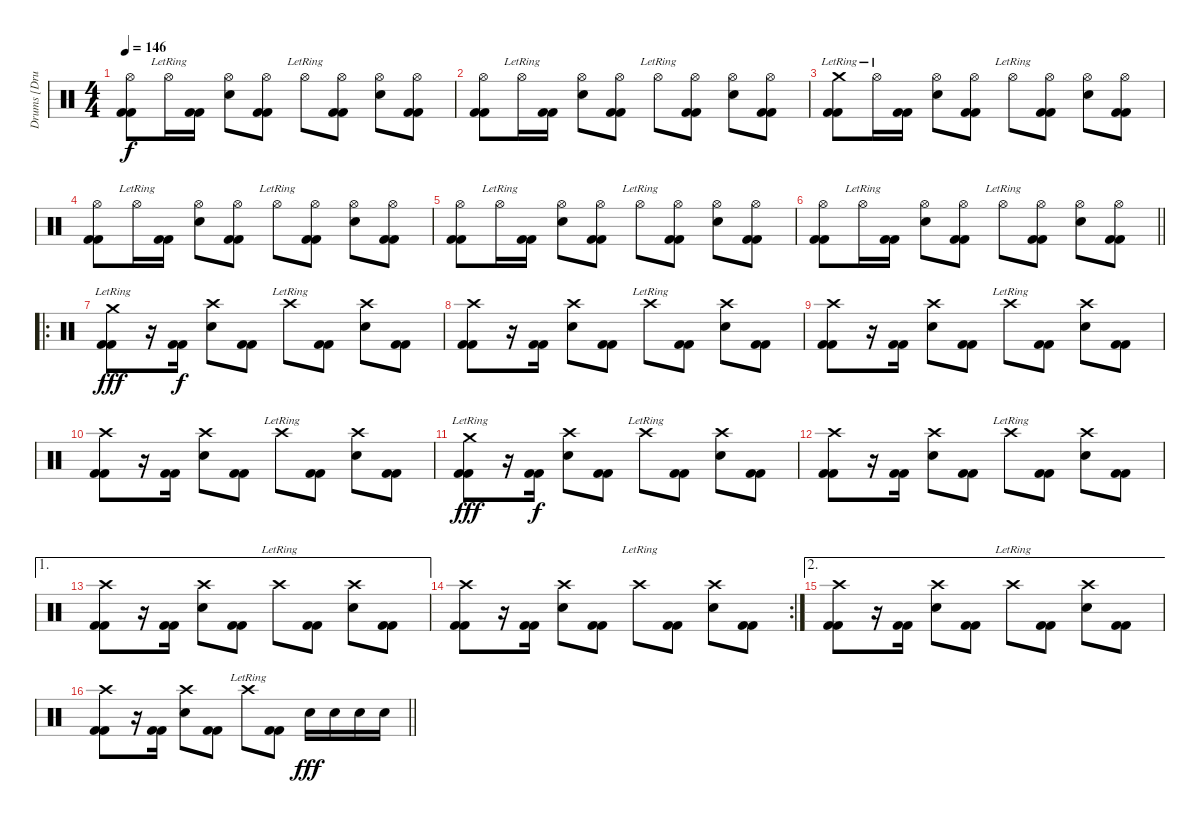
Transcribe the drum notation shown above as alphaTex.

\track ("Drums [Drums]" "Drums [Dru") {instrument percussion}
\staff {score}
\articulation defaults
\ts (4 4)
\tempo 146
\clef neutral
\ks c
("Hi-Hat (open)" "Kick (hit) 2" "Kick (hit) 2").8{dy f} "Hi-Hat (open)"{lr}.16 ("Kick (hit) 2" "Kick (hit) 2").16 ("Hi-Hat (open)" "Snare (hit) 2").8 ("Hi-Hat (open)" "Kick (hit) 2" "Kick (hit) 2").8 "Hi-Hat (open)"{lr}.8 ("Hi-Hat (open)" "Kick (hit) 2" "Kick (hit) 2").8 ("Hi-Hat (open)" "Snare (hit) 2").8 ("Hi-Hat (open)" "Kick (hit) 2" "Kick (hit) 2").8 |
("Hi-Hat (open)" "Kick (hit) 2" "Kick (hit) 2").8 "Hi-Hat (open)"{lr}.16 ("Kick (hit) 2" "Kick (hit) 2").16 ("Hi-Hat (open)" "Snare (hit) 2").8 ("Hi-Hat (open)" "Kick (hit) 2" "Kick (hit) 2").8 "Hi-Hat (open)"{lr}.8 ("Hi-Hat (open)" "Kick (hit) 2" "Kick (hit) 2").8 ("Hi-Hat (open)" "Snare (hit) 2").8 ("Hi-Hat (open)" "Kick (hit) 2" "Kick (hit) 2").8 |
("Crash medium (hit)"{lr} "Kick (hit) 2" "Kick (hit) 2").8 "Hi-Hat (open)"{lr}.16 ("Kick (hit) 2" "Kick (hit) 2").16 ("Hi-Hat (open)" "Snare (hit) 2").8 ("Hi-Hat (open)" "Kick (hit) 2" "Kick (hit) 2").8 "Hi-Hat (open)"{lr}.8 ("Hi-Hat (open)" "Kick (hit) 2" "Kick (hit) 2").8 ("Hi-Hat (open)" "Snare (hit) 2").8 ("Hi-Hat (open)" "Kick (hit) 2" "Kick (hit) 2").8 |
("Hi-Hat (open)" "Kick (hit) 2" "Kick (hit) 2").8 "Hi-Hat (open)"{lr}.16 ("Kick (hit) 2" "Kick (hit) 2").16 ("Hi-Hat (open)" "Snare (hit) 2").8 ("Hi-Hat (open)" "Kick (hit) 2" "Kick (hit) 2").8 "Hi-Hat (open)"{lr}.8 ("Hi-Hat (open)" "Kick (hit) 2" "Kick (hit) 2").8 ("Hi-Hat (open)" "Snare (hit) 2").8 ("Hi-Hat (open)" "Kick (hit) 2" "Kick (hit) 2").8 |
("Hi-Hat (open)" "Kick (hit) 2" "Kick (hit) 2").8 "Hi-Hat (open)"{lr}.16 ("Kick (hit) 2" "Kick (hit) 2").16 ("Hi-Hat (open)" "Snare (hit) 2").8 ("Hi-Hat (open)" "Kick (hit) 2" "Kick (hit) 2").8 "Hi-Hat (open)"{lr}.8 ("Hi-Hat (open)" "Kick (hit) 2" "Kick (hit) 2").8 ("Hi-Hat (open)" "Snare (hit) 2").8 ("Hi-Hat (open)" "Kick (hit) 2" "Kick (hit) 2").8 |
\barLineRight lightlight
("Hi-Hat (open)" "Kick (hit) 2" "Kick (hit) 2").8 "Hi-Hat (open)"{lr}.16 ("Kick (hit) 2" "Kick (hit) 2").16 ("Hi-Hat (open)" "Snare (hit) 2").8 ("Hi-Hat (open)" "Kick (hit) 2" "Kick (hit) 2").8 "Hi-Hat (open)"{lr}.8 ("Hi-Hat (open)" "Kick (hit) 2" "Kick (hit) 2").8 ("Hi-Hat (open)" "Snare (hit) 2").8 ("Hi-Hat (open)" "Kick (hit) 2" "Kick (hit) 2").8 |
\ro
("Crash medium (hit)"{lr} "Kick (hit) 2" "Kick (hit) 2").8{dy fff} r.16 ("Kick (hit) 2" "Kick (hit) 2").16{dy f} ("Crash high (hit)" "Snare (hit) 2").8 ("Kick (hit) 2" "Kick (hit) 2").8 "Crash high (hit)"{lr}.8 ("Kick (hit) 2" "Kick (hit) 2").8 ("Crash high (hit)" "Snare (hit) 2").8 ("Kick (hit) 2" "Kick (hit) 2").8 |
("Crash high (hit)" "Kick (hit) 2" "Kick (hit) 2").8 r.16 ("Kick (hit) 2" "Kick (hit) 2").16 ("Crash high (hit)" "Snare (hit) 2").8 ("Kick (hit) 2" "Kick (hit) 2").8 "Crash high (hit)"{lr}.8 ("Kick (hit) 2" "Kick (hit) 2").8 ("Crash high (hit)" "Snare (hit) 2").8 ("Kick (hit) 2" "Kick (hit) 2").8 |
("Crash high (hit)" "Kick (hit) 2" "Kick (hit) 2").8 r.16 ("Kick (hit) 2" "Kick (hit) 2").16 ("Crash high (hit)" "Snare (hit) 2").8 ("Kick (hit) 2" "Kick (hit) 2").8 "Crash high (hit)"{lr}.8 ("Kick (hit) 2" "Kick (hit) 2").8 ("Crash high (hit)" "Snare (hit) 2").8 ("Kick (hit) 2" "Kick (hit) 2").8 |
("Crash high (hit)" "Kick (hit) 2" "Kick (hit) 2").8 r.16 ("Kick (hit) 2" "Kick (hit) 2").16 ("Crash high (hit)" "Snare (hit) 2").8 ("Kick (hit) 2" "Kick (hit) 2").8 "Crash high (hit)"{lr}.8 ("Kick (hit) 2" "Kick (hit) 2").8 ("Crash high (hit)" "Snare (hit) 2").8 ("Kick (hit) 2" "Kick (hit) 2").8 |
("Crash medium (hit)"{lr} "Kick (hit) 2" "Kick (hit) 2").8{dy fff} r.16 ("Kick (hit) 2" "Kick (hit) 2").16{dy f} ("Crash high (hit)" "Snare (hit) 2").8 ("Kick (hit) 2" "Kick (hit) 2").8 "Crash high (hit)"{lr}.8 ("Kick (hit) 2" "Kick (hit) 2").8 ("Crash high (hit)" "Snare (hit) 2").8 ("Kick (hit) 2" "Kick (hit) 2").8 |
("Crash high (hit)" "Kick (hit) 2" "Kick (hit) 2").8 r.16 ("Kick (hit) 2" "Kick (hit) 2").16 ("Crash high (hit)" "Snare (hit) 2").8 ("Kick (hit) 2" "Kick (hit) 2").8 "Crash high (hit)"{lr}.8 ("Kick (hit) 2" "Kick (hit) 2").8 ("Crash high (hit)" "Snare (hit) 2").8 ("Kick (hit) 2" "Kick (hit) 2").8 |
\ae 1
("Crash high (hit)" "Kick (hit) 2" "Kick (hit) 2").8 r.16 ("Kick (hit) 2" "Kick (hit) 2").16 ("Crash high (hit)" "Snare (hit) 2").8 ("Kick (hit) 2" "Kick (hit) 2").8 "Crash high (hit)"{lr}.8 ("Kick (hit) 2" "Kick (hit) 2").8 ("Crash high (hit)" "Snare (hit) 2").8 ("Kick (hit) 2" "Kick (hit) 2").8 |
\rc 2
("Crash high (hit)" "Kick (hit) 2" "Kick (hit) 2").8 r.16 ("Kick (hit) 2" "Kick (hit) 2").16 ("Crash high (hit)" "Snare (hit) 2").8 ("Kick (hit) 2" "Kick (hit) 2").8 "Crash high (hit)"{lr}.8 ("Kick (hit) 2" "Kick (hit) 2").8 ("Crash high (hit)" "Snare (hit) 2").8 ("Kick (hit) 2" "Kick (hit) 2").8 |
\ae 2
("Crash high (hit)" "Kick (hit) 2" "Kick (hit) 2").8 r.16 ("Kick (hit) 2" "Kick (hit) 2").16 ("Crash high (hit)" "Snare (hit) 2").8 ("Kick (hit) 2" "Kick (hit) 2").8 "Crash high (hit)"{lr}.8 ("Kick (hit) 2" "Kick (hit) 2").8 ("Crash high (hit)" "Snare (hit) 2").8 ("Kick (hit) 2" "Kick (hit) 2").8 |
\barLineRight lightlight
("Crash high (hit)" "Kick (hit) 2" "Kick (hit) 2").8 r.16 ("Kick (hit) 2" "Kick (hit) 2").16 ("Crash high (hit)" "Snare (hit) 2").8 ("Kick (hit) 2" "Kick (hit) 2").8 "Crash high (hit)"{lr}.8 ("Kick (hit) 2" "Kick (hit) 2").8 "Snare (hit) 2".16{dy fff} "Snare (hit) 2".16 "Snare (hit) 2".16 "Snare (hit) 2".16
